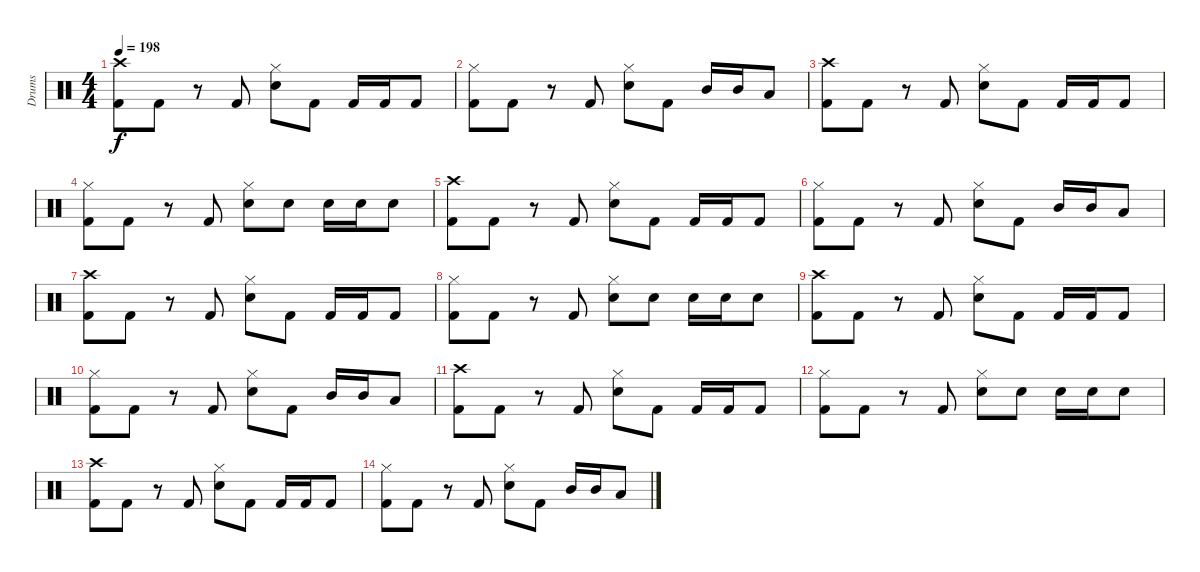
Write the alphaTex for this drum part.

\track ("Drums" "Drums") {instrument percussion}
\staff {score}
\articulation defaults
\ts (4 4)
\tempo 198
\clef neutral
\ks c
("Crash high (hit)" "Kick (hit) 2").8{dy f} "Kick (hit) 2".8 r.8 "Kick (hit) 2".8 ("Hi-Hat (closed)" "Snare (hit) 2").8 "Kick (hit) 2".8 "Kick (hit) 2".16 "Kick (hit) 2".16 "Kick (hit) 2".8 |
("Hi-Hat (closed)" "Kick (hit) 2").8 "Kick (hit) 2".8 r.8 "Kick (hit) 2".8 ("Hi-Hat (closed)" "Snare (hit) 2").8 "Kick (hit) 2".8 "Mid Tom (hit)".16 "Mid Tom (hit)".16 "Low Tom (hit)".8 |
("Crash high (hit)" "Kick (hit) 2").8 "Kick (hit) 2".8 r.8 "Kick (hit) 2".8 ("Hi-Hat (closed)" "Snare (hit) 2").8 "Kick (hit) 2".8 "Kick (hit) 2".16 "Kick (hit) 2".16 "Kick (hit) 2".8 |
("Hi-Hat (closed)" "Kick (hit) 2").8 "Kick (hit) 2".8 r.8 "Kick (hit) 2".8 ("Hi-Hat (closed)" "Snare (hit) 2").8 "Snare (hit) 2".8 "Snare (hit) 2".16 "Snare (hit) 2".16 "Snare (hit) 2".8 |
("Crash high (hit)" "Kick (hit) 2").8 "Kick (hit) 2".8 r.8 "Kick (hit) 2".8 ("Hi-Hat (closed)" "Snare (hit) 2").8 "Kick (hit) 2".8 "Kick (hit) 2".16 "Kick (hit) 2".16 "Kick (hit) 2".8 |
("Hi-Hat (closed)" "Kick (hit) 2").8 "Kick (hit) 2".8 r.8 "Kick (hit) 2".8 ("Hi-Hat (closed)" "Snare (hit) 2").8 "Kick (hit) 2".8 "Mid Tom (hit)".16 "Mid Tom (hit)".16 "Low Tom (hit)".8 |
("Crash high (hit)" "Kick (hit) 2").8 "Kick (hit) 2".8 r.8 "Kick (hit) 2".8 ("Hi-Hat (closed)" "Snare (hit) 2").8 "Kick (hit) 2".8 "Kick (hit) 2".16 "Kick (hit) 2".16 "Kick (hit) 2".8 |
("Hi-Hat (closed)" "Kick (hit) 2").8 "Kick (hit) 2".8 r.8 "Kick (hit) 2".8 ("Hi-Hat (closed)" "Snare (hit) 2").8 "Snare (hit) 2".8 "Snare (hit) 2".16 "Snare (hit) 2".16 "Snare (hit) 2".8 |
("Crash high (hit)" "Kick (hit) 2").8 "Kick (hit) 2".8 r.8 "Kick (hit) 2".8 ("Hi-Hat (closed)" "Snare (hit) 2").8 "Kick (hit) 2".8 "Kick (hit) 2".16 "Kick (hit) 2".16 "Kick (hit) 2".8 |
("Hi-Hat (closed)" "Kick (hit) 2").8 "Kick (hit) 2".8 r.8 "Kick (hit) 2".8 ("Hi-Hat (closed)" "Snare (hit) 2").8 "Kick (hit) 2".8 "Mid Tom (hit)".16 "Mid Tom (hit)".16 "Low Tom (hit)".8 |
("Crash high (hit)" "Kick (hit) 2").8 "Kick (hit) 2".8 r.8 "Kick (hit) 2".8 ("Hi-Hat (closed)" "Snare (hit) 2").8 "Kick (hit) 2".8 "Kick (hit) 2".16 "Kick (hit) 2".16 "Kick (hit) 2".8 |
("Hi-Hat (closed)" "Kick (hit) 2").8 "Kick (hit) 2".8 r.8 "Kick (hit) 2".8 ("Hi-Hat (closed)" "Snare (hit) 2").8 "Snare (hit) 2".8 "Snare (hit) 2".16 "Snare (hit) 2".16 "Snare (hit) 2".8 |
("Crash high (hit)" "Kick (hit) 2").8 "Kick (hit) 2".8 r.8 "Kick (hit) 2".8 ("Hi-Hat (closed)" "Snare (hit) 2").8 "Kick (hit) 2".8 "Kick (hit) 2".16 "Kick (hit) 2".16 "Kick (hit) 2".8 |
("Hi-Hat (closed)" "Kick (hit) 2").8 "Kick (hit) 2".8 r.8 "Kick (hit) 2".8 ("Hi-Hat (closed)" "Snare (hit) 2").8 "Kick (hit) 2".8 "Mid Tom (hit)".16 "Mid Tom (hit)".16 "Low Tom (hit)".8
